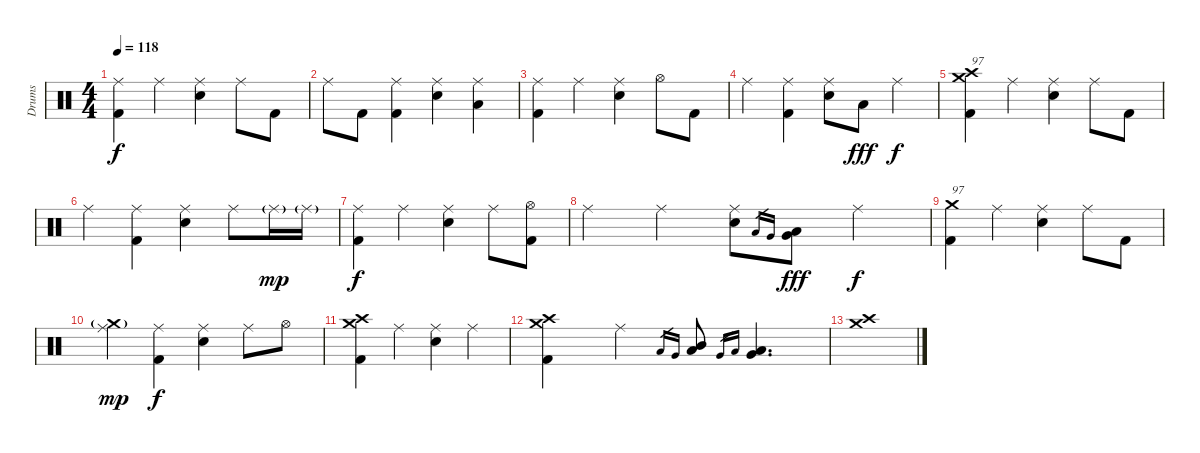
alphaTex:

\track ("Drums" "Drums") {instrument percussion}
\staff {score}
\articulation defaults
\ts (4 4)
\tempo 118
\clef neutral
\ks c
("Ride (middle)" "Kick (hit) 2").4{dy f} "Ride (middle)".4 ("Ride (middle)" "Electric Snare (hit)").4 "Ride (middle)".8 "Kick (hit) 2".8 |
"Ride (middle)".8 "Kick (hit) 2".8 ("Ride (middle)" "Kick (hit) 2").4 ("Ride (middle)" "Electric Snare (hit)").4 ("Ride (middle)" "Low Tom (hit)").4 |
("Ride (middle)" "Kick (hit) 2").4 "Ride (middle)".4 ("Ride (middle)" "Electric Snare (hit)").4 "Hi-Hat (open)".8 "Kick (hit) 2".8 |
"Ride (middle)".4 ("Ride (middle)" "Kick (hit) 2").4 ("Ride (middle)" "Electric Snare (hit)").8 "Low Tom (hit)".8{dy fff} "Ride (middle)".4{dy f} |
("Crash high (hit)" "Crash medium (hit)" "Kick (hit) 2").4{txt "97"} "Ride (middle)".4 ("Ride (middle)" "Electric Snare (hit)").4 "Ride (middle)".8 "Kick (hit) 2".8 |
"Ride (middle)".4 ("Ride (middle)" "Kick (hit) 2").4 ("Ride (middle)" "Electric Snare (hit)").4 "Ride (middle)".8 "Ride (middle)"{g}.16{dy mp} "Ride (middle)"{g}.16 |
("Ride (middle)" "Kick (hit) 2").4{dy f} "Ride (middle)".4 ("Ride (middle)" "Electric Snare (hit)").4 "Ride (middle)".8 ("Hi-Hat (open)" "Kick (hit) 2").8 |
"Ride (middle)".4 "Ride (middle)".4 ("Ride (middle)" "Electric Snare (hit)").8 "Low Floor Tom (hit)".16{gr} "Very Low Tom (hit)".16{gr} ("Very Low Tom (hit)" "Low Tom (hit)").8{dy fff} "Ride (middle)".4{dy f} |
("Crash medium (hit)" "Kick (hit) 2").4{txt "97"} "Ride (middle)".4 ("Ride (middle)" "Electric Snare (hit)").4 "Ride (middle)".8 "Kick (hit) 2".8 |
("Crash medium (hit)"{g} "Ride (middle)").4{dy mp} ("Ride (middle)" "Kick (hit) 2").4{dy f} ("Ride (middle)" "Electric Snare (hit)").4 "Ride (middle)".8 "Hi-Hat (open)".8 |
("Crash high (hit)" "Crash medium (hit)" "Kick (hit) 2").4 "Ride (middle)".4 ("Ride (middle)" "Electric Snare (hit)").4 "Ride (middle)".4 |
("Crash high (hit)" "Crash medium (hit)" "Kick (hit) 2").4 "Ride (middle)".4 "Low Tom (hit)".16{gr} "Very Low Tom (hit)".16{gr} ("Mid Tom (hit)" "Low Tom (hit)").8 "Very Low Tom (hit)".16{gr} "Low Floor Tom (hit)".16{gr} ("Low Tom (hit)" "Very Low Tom (hit)").4{d} |
("Crash medium (hit)" "Crash high (hit)").1
